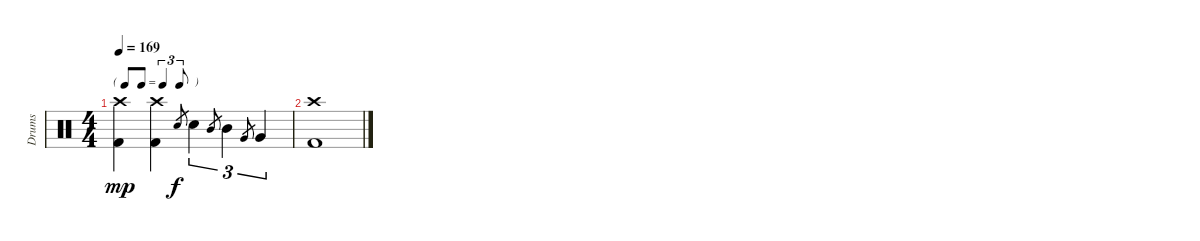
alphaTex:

\track ("Drums" "Drums") {instrument percussion}
\staff {score}
\articulation defaults
\ts (4 4)
\tf triplet8th
\tempo 169
\clef neutral
\ks c
("Crash high (hit)" "Kick (hit) 2").4{dy mp} ("Crash high (hit)" "Kick (hit) 2").4 "Snare (hit) 2".8{gr dy f} "Snare (hit) 2".4{tu (3 2)} "Mid Tom (hit)".8{gr} "Mid Tom (hit)".4{tu (3 2)} "Very Low Tom (hit)".8{gr} "Very Low Tom (hit)".4{tu (3 2)} |
("Crash high (hit)" "Kick (hit) 2").1
